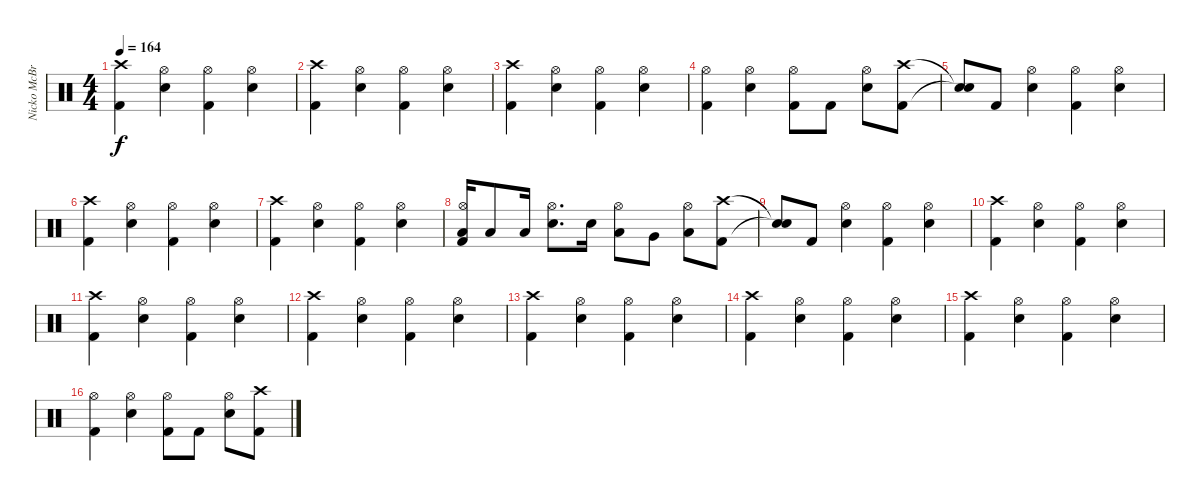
\track ("Nicko McBrian (Drums)" "Nicko McBr") {instrument percussion}
\staff {score}
\articulation defaults
\ts (4 4)
\tempo 164
\clef neutral
\ks c
("Kick (hit) 2" "Crash high (hit)").4{dy f} ("Snare (hit) 2" "Hi-Hat (open)").4 ("Kick (hit) 2" "Hi-Hat (open)").4 ("Snare (hit) 2" "Hi-Hat (open)").4 |
("Kick (hit) 2" "Crash high (hit)").4 ("Snare (hit) 2" "Hi-Hat (open)").4 ("Kick (hit) 2" "Hi-Hat (open)").4 ("Snare (hit) 2" "Hi-Hat (open)").4 |
("Kick (hit) 2" "Crash high (hit)").4 ("Snare (hit) 2" "Hi-Hat (open)").4 ("Kick (hit) 2" "Hi-Hat (open)").4 ("Snare (hit) 2" "Hi-Hat (open)").4 |
("Kick (hit) 2" "Hi-Hat (open)").4 ("Snare (hit) 2" "Hi-Hat (open)").4 ("Kick (hit) 2" "Hi-Hat (open)").8 "Kick (hit) 2".8 ("Snare (hit) 2" "Hi-Hat (open)").8 ("Kick (hit) 2" "Crash high (hit)").8 |
("Snare (hit)"{t} "Snare (hit)"{t}).8 "Kick (hit) 2".8 ("Snare (hit) 2" "Hi-Hat (open)").4 ("Kick (hit) 2" "Hi-Hat (open)").4 ("Snare (hit) 2" "Hi-Hat (open)").4 |
("Kick (hit) 2" "Crash high (hit)").4 ("Snare (hit) 2" "Hi-Hat (open)").4 ("Kick (hit) 2" "Hi-Hat (open)").4 ("Snare (hit) 2" "Hi-Hat (open)").4 |
("Kick (hit) 2" "Crash high (hit)").4 ("Snare (hit) 2" "Hi-Hat (open)").4 ("Kick (hit) 2" "Hi-Hat (open)").4 ("Snare (hit) 2" "Hi-Hat (open)").4 |
("Kick (hit) 2" "Low Floor Tom (hit)" "Hi-Hat (open)").16 "Low Floor Tom (hit)".8 "Low Floor Tom (hit)".16 ("Snare (hit) 2" "Hi-Hat (open)").8{d} "Snare (hit) 2".16 ("Low Tom (hit)" "Hi-Hat (open)").8 "Very Low Tom (hit)".8 ("Low Floor Tom (hit)" "Hi-Hat (open)").8 ("Kick (hit) 2" "Crash high (hit)").8 |
("Snare (hit)"{t} "Snare (hit)"{t}).8 "Kick (hit) 2".8 ("Snare (hit) 2" "Hi-Hat (open)").4 ("Kick (hit) 2" "Hi-Hat (open)").4 ("Snare (hit) 2" "Hi-Hat (open)").4 |
("Kick (hit) 2" "Crash high (hit)").4 ("Snare (hit) 2" "Hi-Hat (open)").4 ("Kick (hit) 2" "Hi-Hat (open)").4 ("Snare (hit) 2" "Hi-Hat (open)").4 |
("Kick (hit) 2" "Crash high (hit)").4 ("Snare (hit) 2" "Hi-Hat (open)").4 ("Kick (hit) 2" "Hi-Hat (open)").4 ("Snare (hit) 2" "Hi-Hat (open)").4 |
("Kick (hit) 2" "Crash high (hit)").4 ("Snare (hit) 2" "Hi-Hat (open)").4 ("Kick (hit) 2" "Hi-Hat (open)").4 ("Snare (hit) 2" "Hi-Hat (open)").4 |
("Kick (hit) 2" "Crash high (hit)").4 ("Snare (hit) 2" "Hi-Hat (open)").4 ("Kick (hit) 2" "Hi-Hat (open)").4 ("Snare (hit) 2" "Hi-Hat (open)").4 |
("Kick (hit) 2" "Crash high (hit)").4 ("Snare (hit) 2" "Hi-Hat (open)").4 ("Kick (hit) 2" "Hi-Hat (open)").4 ("Snare (hit) 2" "Hi-Hat (open)").4 |
("Kick (hit) 2" "Crash high (hit)").4 ("Snare (hit) 2" "Hi-Hat (open)").4 ("Kick (hit) 2" "Hi-Hat (open)").4 ("Snare (hit) 2" "Hi-Hat (open)").4 |
("Kick (hit) 2" "Hi-Hat (open)").4 ("Snare (hit) 2" "Hi-Hat (open)").4 ("Kick (hit) 2" "Hi-Hat (open)").8 "Kick (hit) 2".8 ("Snare (hit) 2" "Hi-Hat (open)").8 ("Kick (hit) 2" "Crash high (hit)").8
